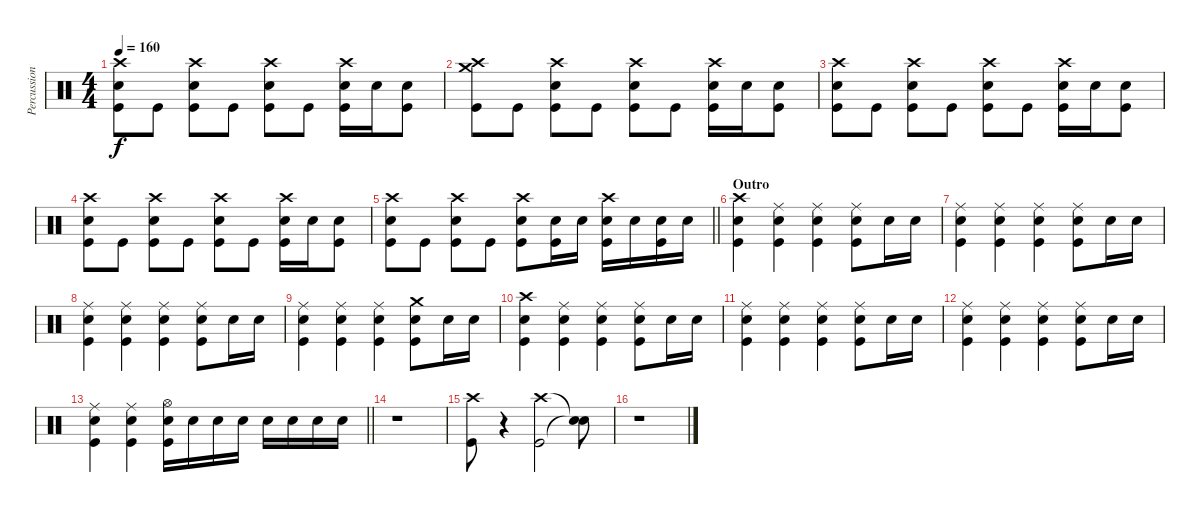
\track ("Percussion" "Percussion") {instrument percussion}
\staff {score}
\articulation defaults
\ts (4 4)
\tempo 160
\clef neutral
\ks c
("Crash high (hit)" "Electric Snare (hit)" "Kick (hit)").8{dy f} "Kick (hit)".8 ("Crash high (hit)" "Electric Snare (hit)" "Kick (hit)").8 "Kick (hit)".8 ("Crash high (hit)" "Electric Snare (hit)" "Kick (hit)").8 "Kick (hit)".8 ("Crash high (hit)" "Electric Snare (hit)" "Kick (hit)").16 "Electric Snare (hit)".16 ("Electric Snare (hit)" "Kick (hit)").8 |
("Crash high (hit)" "Crash medium (hit)" "Kick (hit)").8 "Kick (hit)".8 ("Crash high (hit)" "Electric Snare (hit)" "Kick (hit)").8 "Kick (hit)".8 ("Crash high (hit)" "Electric Snare (hit)" "Kick (hit)").8 "Kick (hit)".8 ("Crash high (hit)" "Electric Snare (hit)" "Kick (hit)").16 "Electric Snare (hit)".16 ("Electric Snare (hit)" "Kick (hit)").8 |
("Crash high (hit)" "Electric Snare (hit)" "Kick (hit)").8 "Kick (hit)".8 ("Crash high (hit)" "Electric Snare (hit)" "Kick (hit)").8 "Kick (hit)".8 ("Crash high (hit)" "Electric Snare (hit)" "Kick (hit)").8 "Kick (hit)".8 ("Crash high (hit)" "Electric Snare (hit)" "Kick (hit)").16 "Electric Snare (hit)".16 ("Electric Snare (hit)" "Kick (hit)").8 |
("Crash high (hit)" "Electric Snare (hit)" "Kick (hit)").8 "Kick (hit)".8 ("Crash high (hit)" "Electric Snare (hit)" "Kick (hit)").8 "Kick (hit)".8 ("Crash high (hit)" "Electric Snare (hit)" "Kick (hit)").8 "Kick (hit)".8 ("Crash high (hit)" "Electric Snare (hit)" "Kick (hit)").16 "Electric Snare (hit)".16 ("Electric Snare (hit)" "Kick (hit)").8 |
\barLineRight lightlight
("Crash high (hit)" "Electric Snare (hit)" "Kick (hit)").8 "Kick (hit)".8 ("Crash high (hit)" "Electric Snare (hit)" "Kick (hit)").8 "Kick (hit)".8 ("Crash high (hit)" "Electric Snare (hit)" "Kick (hit)").8 ("Electric Snare (hit)" "Kick (hit)").16 "Electric Snare (hit)".16 ("Crash high (hit)" "Electric Snare (hit)" "Kick (hit)").16 "Electric Snare (hit)".16 ("Electric Snare (hit)" "Kick (hit)").16 "Electric Snare (hit)".16 |
\section ("" "Outro")
("Crash high (hit)" "Electric Snare (hit)" "Kick (hit)").4 ("Ride (middle)" "Electric Snare (hit)" "Kick (hit)").4 ("Ride (middle)" "Electric Snare (hit)" "Kick (hit)").4 ("Ride (middle)" "Electric Snare (hit)" "Kick (hit)").8 "Electric Snare (hit)".16 "Electric Snare (hit)".16 |
("Ride (middle)" "Electric Snare (hit)" "Kick (hit)").4 ("Ride (middle)" "Electric Snare (hit)" "Kick (hit)").4 ("Ride (middle)" "Electric Snare (hit)" "Kick (hit)").4 ("Ride (middle)" "Electric Snare (hit)" "Kick (hit)").8 "Electric Snare (hit)".16 "Electric Snare (hit)".16 |
("Ride (middle)" "Electric Snare (hit)" "Kick (hit)").4 ("Ride (middle)" "Electric Snare (hit)" "Kick (hit)").4 ("Ride (middle)" "Electric Snare (hit)" "Kick (hit)").4 ("Ride (middle)" "Electric Snare (hit)" "Kick (hit)").8 "Electric Snare (hit)".16 "Electric Snare (hit)".16 |
("Ride (middle)" "Electric Snare (hit)" "Kick (hit)").4 ("Ride (middle)" "Electric Snare (hit)" "Kick (hit)").4 ("Ride (middle)" "Electric Snare (hit)" "Kick (hit)").4 ("Crash medium (hit)" "Electric Snare (hit)" "Kick (hit)").8 "Electric Snare (hit)".16 "Electric Snare (hit)".16 |
("Crash high (hit)" "Electric Snare (hit)" "Kick (hit)").4 ("Ride (middle)" "Electric Snare (hit)" "Kick (hit)").4 ("Ride (middle)" "Electric Snare (hit)" "Kick (hit)").4 ("Ride (middle)" "Electric Snare (hit)" "Kick (hit)").8 "Electric Snare (hit)".16 "Electric Snare (hit)".16 |
("Ride (middle)" "Electric Snare (hit)" "Kick (hit)").4 ("Ride (middle)" "Electric Snare (hit)" "Kick (hit)").4 ("Ride (middle)" "Electric Snare (hit)" "Kick (hit)").4 ("Ride (middle)" "Electric Snare (hit)" "Kick (hit)").8 "Electric Snare (hit)".16 "Electric Snare (hit)".16 |
("Ride (middle)" "Electric Snare (hit)" "Kick (hit)").4 ("Ride (middle)" "Electric Snare (hit)" "Kick (hit)").4 ("Ride (middle)" "Electric Snare (hit)" "Kick (hit)").4 ("Ride (middle)" "Electric Snare (hit)" "Kick (hit)").8 "Electric Snare (hit)".16 "Electric Snare (hit)".16 |
\barLineRight lightlight
("Ride (middle)" "Electric Snare (hit)" "Kick (hit)").4 ("Ride (middle)" "Electric Snare (hit)" "Kick (hit)").4 ("Hi-Hat (open)" "Electric Snare (hit)" "Kick (hit)").16 "Electric Snare (hit)".16 "Electric Snare (hit)".16 "Electric Snare (hit)".16 "Electric Snare (hit)".16 "Electric Snare (hit)".16 "Electric Snare (hit)".16 "Electric Snare (hit)".16 |
r.1 |
("Crash high (hit)" "Kick (hit)").8 r.4{volume 0} ("Crash high (hit)" "Kick (hit)").2{volume 16} ("Snare (hit)"{t} "Snare (hit)"{t}).8 |
r.1
